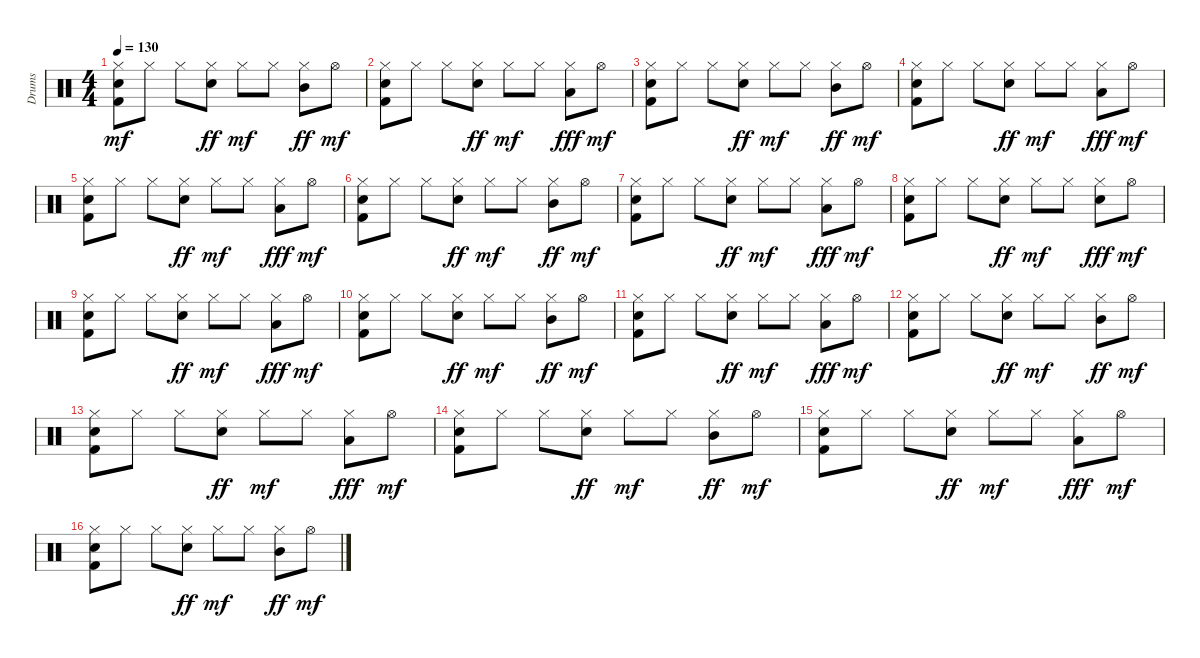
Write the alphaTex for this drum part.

\track ("Drums" "Drums") {instrument percussion}
\staff {score}
\articulation defaults
\ts (4 4)
\tempo 130
\clef neutral
\ks c
("Hi-Hat (closed)" "Electric Snare (hit)" "Kick (hit) 2").8{dy mf} "Hi-Hat (closed)".8 "Hi-Hat (closed)".8 ("Hi-Hat (closed)" "Electric Snare (hit)").8{dy ff} "Hi-Hat (closed)".8{dy mf} "Hi-Hat (closed)".8 ("Hi-Hat (closed)" "Mid Tom (hit)").8{dy ff} "Hi-Hat (open)".8{dy mf} |
("Hi-Hat (closed)" "Snare (hit) 2" "Kick (hit) 2").8 "Hi-Hat (closed)".8 "Hi-Hat (closed)".8 ("Hi-Hat (closed)" "Electric Snare (hit)").8{dy ff} "Hi-Hat (closed)".8{dy mf} "Hi-Hat (closed)".8 ("Hi-Hat (closed)" "Low Tom (hit)").8{dy fff} "Hi-Hat (open)".8{dy mf} |
("Hi-Hat (closed)" "Electric Snare (hit)" "Kick (hit) 2").8 "Hi-Hat (closed)".8 "Hi-Hat (closed)".8 ("Hi-Hat (closed)" "Electric Snare (hit)").8{dy ff} "Hi-Hat (closed)".8{dy mf} "Hi-Hat (closed)".8 ("Hi-Hat (closed)" "Mid Tom (hit)").8{dy ff} "Hi-Hat (open)".8{dy mf} |
("Hi-Hat (closed)" "Snare (hit) 2" "Kick (hit) 2").8 "Hi-Hat (closed)".8 "Hi-Hat (closed)".8 ("Hi-Hat (closed)" "Electric Snare (hit)").8{dy ff} "Hi-Hat (closed)".8{dy mf} "Hi-Hat (closed)".8 ("Hi-Hat (closed)" "Low Tom (hit)").8{dy fff} "Hi-Hat (open)".8{dy mf} |
("Hi-Hat (closed)" "Snare (hit) 2" "Kick (hit) 2").8 "Hi-Hat (closed)".8 "Hi-Hat (closed)".8 ("Hi-Hat (closed)" "Electric Snare (hit)").8{dy ff} "Hi-Hat (closed)".8{dy mf} "Hi-Hat (closed)".8 ("Hi-Hat (closed)" "Low Tom (hit)").8{dy fff} "Hi-Hat (open)".8{dy mf} |
("Hi-Hat (closed)" "Electric Snare (hit)" "Kick (hit) 2").8 "Hi-Hat (closed)".8 "Hi-Hat (closed)".8 ("Hi-Hat (closed)" "Electric Snare (hit)").8{dy ff} "Hi-Hat (closed)".8{dy mf} "Hi-Hat (closed)".8 ("Hi-Hat (closed)" "Mid Tom (hit)").8{dy ff} "Hi-Hat (open)".8{dy mf} |
("Hi-Hat (closed)" "Snare (hit) 2" "Kick (hit) 2").8 "Hi-Hat (closed)".8 "Hi-Hat (closed)".8 ("Hi-Hat (closed)" "Electric Snare (hit)").8{dy ff} "Hi-Hat (closed)".8{dy mf} "Hi-Hat (closed)".8 ("Hi-Hat (closed)" "Low Tom (hit)").8{dy fff} "Hi-Hat (open)".8{dy mf} |
("Hi-Hat (closed)" "Electric Snare (hit)" "Kick (hit) 2").8 "Hi-Hat (closed)".8 "Hi-Hat (closed)".8 ("Hi-Hat (closed)" "Electric Snare (hit)").8{dy ff} "Hi-Hat (closed)".8{dy mf} "Hi-Hat (closed)".8 ("Hi-Hat (closed)" "Electric Snare (hit)").8{dy fff} "Hi-Hat (open)".8{dy mf} |
("Hi-Hat (closed)" "Snare (hit) 2" "Kick (hit) 2").8 "Hi-Hat (closed)".8 "Hi-Hat (closed)".8 ("Hi-Hat (closed)" "Electric Snare (hit)").8{dy ff} "Hi-Hat (closed)".8{dy mf} "Hi-Hat (closed)".8 ("Hi-Hat (closed)" "Low Tom (hit)").8{dy fff} "Hi-Hat (open)".8{dy mf} |
("Hi-Hat (closed)" "Electric Snare (hit)" "Kick (hit) 2").8 "Hi-Hat (closed)".8 "Hi-Hat (closed)".8 ("Hi-Hat (closed)" "Electric Snare (hit)").8{dy ff} "Hi-Hat (closed)".8{dy mf} "Hi-Hat (closed)".8 ("Hi-Hat (closed)" "Mid Tom (hit)").8{dy ff} "Hi-Hat (open)".8{dy mf} |
("Hi-Hat (closed)" "Snare (hit) 2" "Kick (hit) 2").8 "Hi-Hat (closed)".8 "Hi-Hat (closed)".8 ("Hi-Hat (closed)" "Electric Snare (hit)").8{dy ff} "Hi-Hat (closed)".8{dy mf} "Hi-Hat (closed)".8 ("Hi-Hat (closed)" "Low Tom (hit)").8{dy fff} "Hi-Hat (open)".8{dy mf} |
("Hi-Hat (closed)" "Electric Snare (hit)" "Kick (hit) 2").8 "Hi-Hat (closed)".8 "Hi-Hat (closed)".8 ("Hi-Hat (closed)" "Electric Snare (hit)").8{dy ff} "Hi-Hat (closed)".8{dy mf} "Hi-Hat (closed)".8 ("Hi-Hat (closed)" "Mid Tom (hit)").8{dy ff} "Hi-Hat (open)".8{dy mf} |
("Hi-Hat (closed)" "Snare (hit) 2" "Kick (hit) 2").8 "Hi-Hat (closed)".8 "Hi-Hat (closed)".8 ("Hi-Hat (closed)" "Electric Snare (hit)").8{dy ff} "Hi-Hat (closed)".8{dy mf} "Hi-Hat (closed)".8 ("Hi-Hat (closed)" "Low Tom (hit)").8{dy fff} "Hi-Hat (open)".8{dy mf} |
("Hi-Hat (closed)" "Electric Snare (hit)" "Kick (hit) 2").8 "Hi-Hat (closed)".8 "Hi-Hat (closed)".8 ("Hi-Hat (closed)" "Electric Snare (hit)").8{dy ff} "Hi-Hat (closed)".8{dy mf} "Hi-Hat (closed)".8 ("Hi-Hat (closed)" "Mid Tom (hit)").8{dy ff} "Hi-Hat (open)".8{dy mf} |
("Hi-Hat (closed)" "Snare (hit) 2" "Kick (hit) 2").8 "Hi-Hat (closed)".8 "Hi-Hat (closed)".8 ("Hi-Hat (closed)" "Electric Snare (hit)").8{dy ff} "Hi-Hat (closed)".8{dy mf} "Hi-Hat (closed)".8 ("Hi-Hat (closed)" "Low Tom (hit)").8{dy fff} "Hi-Hat (open)".8{dy mf} |
("Hi-Hat (closed)" "Electric Snare (hit)" "Kick (hit) 2").8 "Hi-Hat (closed)".8 "Hi-Hat (closed)".8 ("Hi-Hat (closed)" "Electric Snare (hit)").8{dy ff} "Hi-Hat (closed)".8{dy mf} "Hi-Hat (closed)".8 ("Hi-Hat (closed)" "Mid Tom (hit)").8{dy ff} "Hi-Hat (open)".8{dy mf}
